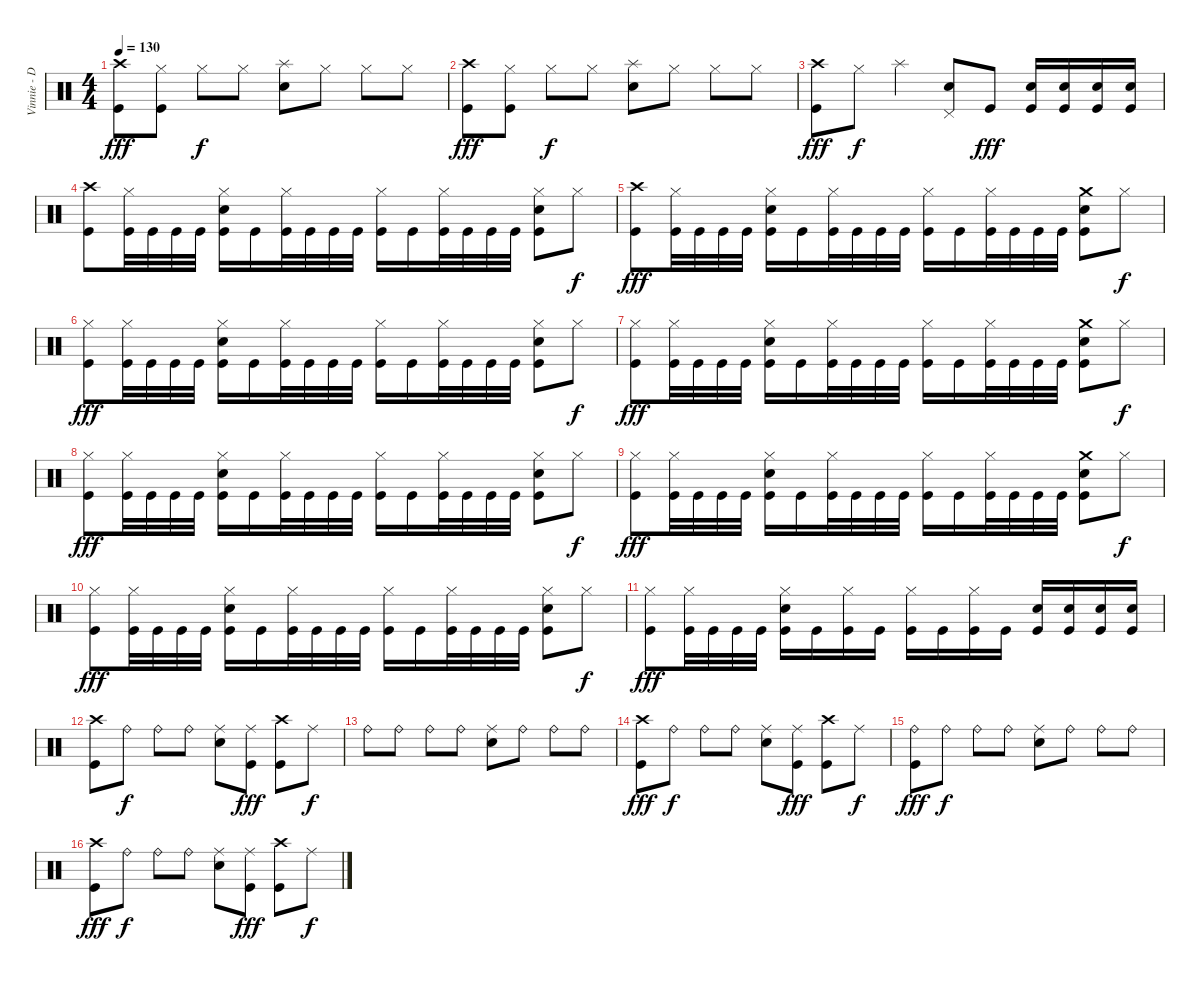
\track ("Vinnie - Drums" "Vinnie - D") {instrument percussion}
\staff {score}
\articulation defaults
\ts (4 4)
\tempo 130
\clef neutral
\ks c
("Crash high (hit)" "Kick (hit)").8{dy fff} ("Hi-Hat (closed)" "Kick (hit)").8 "Hi-Hat (closed)".8{dy f} "Hi-Hat (closed)".8 ("Splash (hit)" "Electric Snare (hit)").8 "Hi-Hat (closed)".8 "Hi-Hat (closed)".8 "Hi-Hat (closed)".8 |
("Crash high (hit)" "Kick (hit)").8{dy fff} ("Hi-Hat (closed)" "Kick (hit)").8 "Hi-Hat (closed)".8{dy f} "Hi-Hat (closed)".8 ("Splash (hit)" "Electric Snare (hit)").8 "Hi-Hat (closed)".8 "Hi-Hat (closed)".8 "Hi-Hat (closed)".8 |
("Crash high (hit)" "Kick (hit)").8{dy fff} "Hi-Hat (closed)".8{dy f} "Splash (hit)".4 ("Pedal Hi-Hat (hit)" "Electric Snare (hit)").8 "Kick (hit)".8{dy fff} ("Electric Snare (hit)" "Kick (hit)").16 ("Electric Snare (hit)" "Kick (hit)").16 ("Electric Snare (hit)" "Kick (hit)").16 ("Electric Snare (hit)" "Kick (hit)").16 |
("Crash high (hit)" "Kick (hit)").8 ("Hi-Hat (closed)" "Kick (hit)").32 "Kick (hit)".32 "Kick (hit)".32 "Kick (hit)".32 ("Hi-Hat (closed)" "Electric Snare (hit)" "Kick (hit)").16 "Kick (hit)".16 ("Hi-Hat (closed)" "Kick (hit)").32 "Kick (hit)".32 "Kick (hit)".32 "Kick (hit)".32 ("Hi-Hat (closed)" "Kick (hit)").16 "Kick (hit)".16 ("Hi-Hat (closed)" "Kick (hit)").32 "Kick (hit)".32 "Kick (hit)".32 "Kick (hit)".32 ("Hi-Hat (closed)" "Electric Snare (hit)" "Kick (hit)").8 "Hi-Hat (closed)".8{dy f} |
("Crash high (hit)" "Kick (hit)").8{dy fff} ("Hi-Hat (closed)" "Kick (hit)").32 "Kick (hit)".32 "Kick (hit)".32 "Kick (hit)".32 ("Hi-Hat (closed)" "Electric Snare (hit)" "Kick (hit)").16 "Kick (hit)".16 ("Hi-Hat (closed)" "Kick (hit)").32 "Kick (hit)".32 "Kick (hit)".32 "Kick (hit)".32 ("Hi-Hat (closed)" "Kick (hit)").16 "Kick (hit)".16 ("Hi-Hat (closed)" "Kick (hit)").32 "Kick (hit)".32 "Kick (hit)".32 "Kick (hit)".32 ("Crash medium (hit)" "Electric Snare (hit)" "Kick (hit)").8 "Hi-Hat (closed)".8{dy f} |
("Hi-Hat (closed)" "Kick (hit)").8{dy fff} ("Hi-Hat (closed)" "Kick (hit)").32 "Kick (hit)".32 "Kick (hit)".32 "Kick (hit)".32 ("Hi-Hat (closed)" "Electric Snare (hit)" "Kick (hit)").16 "Kick (hit)".16 ("Hi-Hat (closed)" "Kick (hit)").32 "Kick (hit)".32 "Kick (hit)".32 "Kick (hit)".32 ("Hi-Hat (closed)" "Kick (hit)").16 "Kick (hit)".16 ("Hi-Hat (closed)" "Kick (hit)").32 "Kick (hit)".32 "Kick (hit)".32 "Kick (hit)".32 ("Hi-Hat (closed)" "Electric Snare (hit)" "Kick (hit)").8 "Hi-Hat (closed)".8{dy f} |
("Hi-Hat (closed)" "Kick (hit)").8{dy fff} ("Hi-Hat (closed)" "Kick (hit)").32 "Kick (hit)".32 "Kick (hit)".32 "Kick (hit)".32 ("Hi-Hat (closed)" "Electric Snare (hit)" "Kick (hit)").16 "Kick (hit)".16 ("Hi-Hat (closed)" "Kick (hit)").32 "Kick (hit)".32 "Kick (hit)".32 "Kick (hit)".32 ("Hi-Hat (closed)" "Kick (hit)").16 "Kick (hit)".16 ("Hi-Hat (closed)" "Kick (hit)").32 "Kick (hit)".32 "Kick (hit)".32 "Kick (hit)".32 ("Crash medium (hit)" "Electric Snare (hit)" "Kick (hit)").8 "Hi-Hat (closed)".8{dy f} |
("Hi-Hat (closed)" "Kick (hit)").8{dy fff} ("Hi-Hat (closed)" "Kick (hit)").32 "Kick (hit)".32 "Kick (hit)".32 "Kick (hit)".32 ("Hi-Hat (closed)" "Electric Snare (hit)" "Kick (hit)").16 "Kick (hit)".16 ("Hi-Hat (closed)" "Kick (hit)").32 "Kick (hit)".32 "Kick (hit)".32 "Kick (hit)".32 ("Hi-Hat (closed)" "Kick (hit)").16 "Kick (hit)".16 ("Hi-Hat (closed)" "Kick (hit)").32 "Kick (hit)".32 "Kick (hit)".32 "Kick (hit)".32 ("Hi-Hat (closed)" "Electric Snare (hit)" "Kick (hit)").8 "Hi-Hat (closed)".8{dy f} |
("Hi-Hat (closed)" "Kick (hit)").8{dy fff} ("Hi-Hat (closed)" "Kick (hit)").32 "Kick (hit)".32 "Kick (hit)".32 "Kick (hit)".32 ("Hi-Hat (closed)" "Electric Snare (hit)" "Kick (hit)").16 "Kick (hit)".16 ("Hi-Hat (closed)" "Kick (hit)").32 "Kick (hit)".32 "Kick (hit)".32 "Kick (hit)".32 ("Hi-Hat (closed)" "Kick (hit)").16 "Kick (hit)".16 ("Hi-Hat (closed)" "Kick (hit)").32 "Kick (hit)".32 "Kick (hit)".32 "Kick (hit)".32 ("Crash medium (hit)" "Electric Snare (hit)" "Kick (hit)").8 "Hi-Hat (closed)".8{dy f} |
("Hi-Hat (closed)" "Kick (hit)").8{dy fff} ("Hi-Hat (closed)" "Kick (hit)").32 "Kick (hit)".32 "Kick (hit)".32 "Kick (hit)".32 ("Hi-Hat (closed)" "Electric Snare (hit)" "Kick (hit)").16 "Kick (hit)".16 ("Hi-Hat (closed)" "Kick (hit)").32 "Kick (hit)".32 "Kick (hit)".32 "Kick (hit)".32 ("Hi-Hat (closed)" "Kick (hit)").16 "Kick (hit)".16 ("Hi-Hat (closed)" "Kick (hit)").32 "Kick (hit)".32 "Kick (hit)".32 "Kick (hit)".32 ("Hi-Hat (closed)" "Electric Snare (hit)" "Kick (hit)").8 "Hi-Hat (closed)".8{dy f} |
("Hi-Hat (closed)" "Kick (hit)").8{dy fff} ("Hi-Hat (closed)" "Kick (hit)").32 "Kick (hit)".32 "Kick (hit)".32 "Kick (hit)".32 ("Hi-Hat (closed)" "Electric Snare (hit)" "Kick (hit)").16 "Kick (hit)".16 ("Hi-Hat (closed)" "Kick (hit)").16 "Kick (hit)".16 ("Hi-Hat (closed)" "Kick (hit)").16 "Kick (hit)".16 ("Hi-Hat (closed)" "Kick (hit)").16 "Kick (hit)".16 ("Electric Snare (hit)" "Kick (hit)").16 ("Electric Snare (hit)" "Kick (hit)").16 ("Electric Snare (hit)" "Kick (hit)").16 ("Electric Snare (hit)" "Kick (hit)").16 |
("Crash high (hit)" "Kick (hit)").8 "Ride (bell)".8{dy f} "Ride (bell)".8 "Ride (bell)".8 ("Ride (middle)" "Electric Snare (hit)").8 ("Ride (middle)" "Kick (hit)").8{dy fff} ("Crash high (hit)" "Kick (hit)").8 "Ride (middle)".8{dy f} |
"Ride (bell)".8 "Ride (bell)".8 "Ride (bell)".8 "Ride (bell)".8 ("Ride (middle)" "Electric Snare (hit)").8 "Ride (bell)".8 "Ride (bell)".8 "Ride (bell)".8 |
("Crash high (hit)" "Kick (hit)").8{dy fff} "Ride (bell)".8{dy f} "Ride (bell)".8 "Ride (bell)".8 ("Ride (middle)" "Electric Snare (hit)").8 ("Ride (middle)" "Kick (hit)").8{dy fff} ("Crash high (hit)" "Kick (hit)").8 "Ride (middle)".8{dy f} |
("Ride (bell)" "Kick (hit)").8{dy fff} "Ride (bell)".8{dy f} "Ride (bell)".8 "Ride (bell)".8 ("Ride (middle)" "Electric Snare (hit)").8 "Ride (bell)".8 "Ride (bell)".8 "Ride (bell)".8 |
("Crash high (hit)" "Kick (hit)").8{dy fff} "Ride (bell)".8{dy f} "Ride (bell)".8 "Ride (bell)".8 ("Ride (middle)" "Electric Snare (hit)").8 ("Ride (middle)" "Kick (hit)").8{dy fff} ("Crash high (hit)" "Kick (hit)").8 "Ride (middle)".8{dy f}
